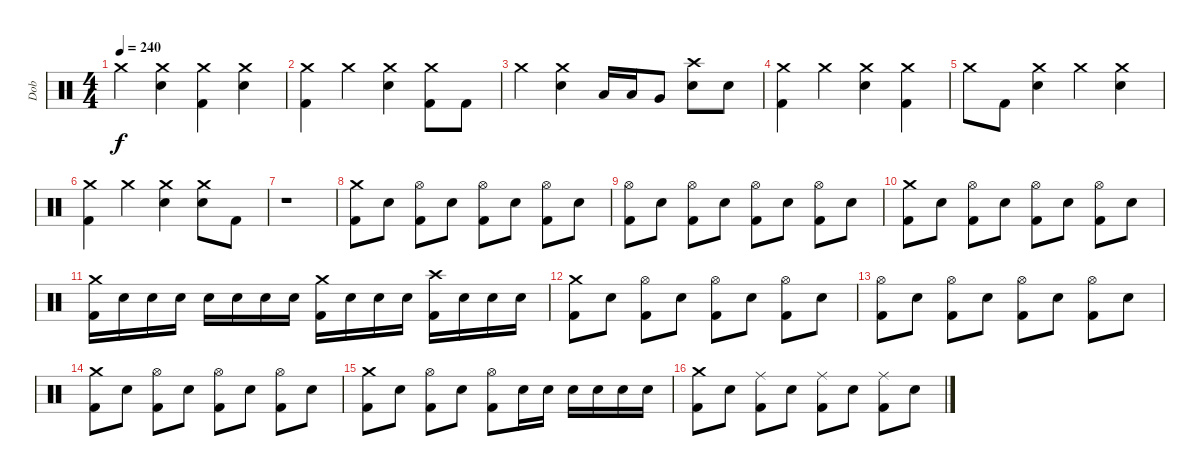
\track ("Dob" "Dob") {instrument percussion}
\staff {score}
\articulation defaults
\ts (4 4)
\tempo 240
\clef neutral
\ks c "Crash medium (hit)".4{dy f}
("Crash medium (hit)" "Electric Snare (hit)").4 ("Crash medium (hit)" "Kick (hit) 2").4 ("Crash medium (hit)" "Electric Snare (hit)").4 |
("Crash medium (hit)" "Kick (hit) 2").4 "Crash medium (hit)".4 ("Crash medium (hit)" "Electric Snare (hit)").4 ("Crash medium (hit)" "Kick (hit) 2").8 "Kick (hit) 2".8 |
"Crash medium (hit)".4 ("Crash medium (hit)" "Electric Snare (hit)").4 "Low Tom (hit)".16 "Low Tom (hit)".16 "Very Low Tom (hit)".8 ("Crash high (hit)" "Electric Snare (hit)").8 "Electric Snare (hit)".8 |
("Crash medium (hit)" "Kick (hit) 2").4 "Crash medium (hit)".4 ("Crash medium (hit)" "Electric Snare (hit)").4 ("Crash medium (hit)" "Kick (hit) 2").4 |
"Crash medium (hit)".8 "Kick (hit) 2".8 ("Crash medium (hit)" "Electric Snare (hit)").4 "Crash medium (hit)".4 ("Crash medium (hit)" "Electric Snare (hit)").4 |
("Crash medium (hit)" "Kick (hit) 2").4 "Crash medium (hit)".4 ("Crash medium (hit)" "Electric Snare (hit)").4 ("Crash medium (hit)" "Electric Snare (hit)").8 "Kick (hit) 2".8 |
r.1 |
("Crash medium (hit)" "Kick (hit) 2").8 "Electric Snare (hit)".8 ("Hi-Hat (open)" "Kick (hit) 2").8 "Electric Snare (hit)".8 ("Hi-Hat (open)" "Kick (hit) 2").8 "Electric Snare (hit)".8 ("Hi-Hat (open)" "Kick (hit) 2").8 "Electric Snare (hit)".8 |
("Hi-Hat (open)" "Kick (hit) 2").8 "Electric Snare (hit)".8 ("Hi-Hat (open)" "Kick (hit) 2").8 "Electric Snare (hit)".8 ("Hi-Hat (open)" "Kick (hit) 2").8 "Electric Snare (hit)".8 ("Hi-Hat (open)" "Kick (hit) 2").8 "Electric Snare (hit)".8 |
("Crash medium (hit)" "Kick (hit) 2").8 "Electric Snare (hit)".8 ("Hi-Hat (open)" "Kick (hit) 2").8 "Electric Snare (hit)".8 ("Hi-Hat (open)" "Kick (hit) 2").8 "Electric Snare (hit)".8 ("Hi-Hat (open)" "Kick (hit) 2").8 "Electric Snare (hit)".8 |
("Crash medium (hit)" "Kick (hit) 2").16 "Electric Snare (hit)".16 "Electric Snare (hit)".16 "Electric Snare (hit)".16 "Electric Snare (hit)".16 "Electric Snare (hit)".16 "Electric Snare (hit)".16 "Electric Snare (hit)".16 ("Crash medium (hit)" "Kick (hit) 2").16 "Electric Snare (hit)".16 "Electric Snare (hit)".16 "Electric Snare (hit)".16 ("Crash high (hit)" "Kick (hit) 2").16 "Electric Snare (hit)".16 "Electric Snare (hit)".16 "Electric Snare (hit)".16 |
("Crash medium (hit)" "Kick (hit) 2").8 "Electric Snare (hit)".8 ("Hi-Hat (open)" "Kick (hit) 2").8 "Electric Snare (hit)".8 ("Hi-Hat (open)" "Kick (hit) 2").8 "Electric Snare (hit)".8 ("Hi-Hat (open)" "Kick (hit) 2").8 "Electric Snare (hit)".8 |
("Hi-Hat (open)" "Kick (hit) 2").8 "Electric Snare (hit)".8 ("Hi-Hat (open)" "Kick (hit) 2").8 "Electric Snare (hit)".8 ("Hi-Hat (open)" "Kick (hit) 2").8 "Electric Snare (hit)".8 ("Hi-Hat (open)" "Kick (hit) 2").8 "Electric Snare (hit)".8 |
("Crash medium (hit)" "Kick (hit) 2").8 "Electric Snare (hit)".8 ("Hi-Hat (open)" "Kick (hit) 2").8 "Electric Snare (hit)".8 ("Hi-Hat (open)" "Kick (hit) 2").8 "Electric Snare (hit)".8 ("Hi-Hat (open)" "Kick (hit) 2").8 "Electric Snare (hit)".8 |
("Crash medium (hit)" "Kick (hit) 2").8 "Electric Snare (hit)".8 ("Hi-Hat (open)" "Kick (hit) 2").8 "Electric Snare (hit)".8 ("Hi-Hat (open)" "Kick (hit) 2").8 "Electric Snare (hit)".16 "Electric Snare (hit)".16 "Electric Snare (hit)".16 "Electric Snare (hit)".16 "Electric Snare (hit)".16 "Electric Snare (hit)".16 |
("Crash medium (hit)" "Kick (hit) 2").8 "Electric Snare (hit)".8 ("Ride (middle)" "Kick (hit) 2").8 "Electric Snare (hit)".8 ("Ride (middle)" "Kick (hit) 2").8 "Electric Snare (hit)".8 ("Ride (middle)" "Kick (hit) 2").8 "Electric Snare (hit)".8
